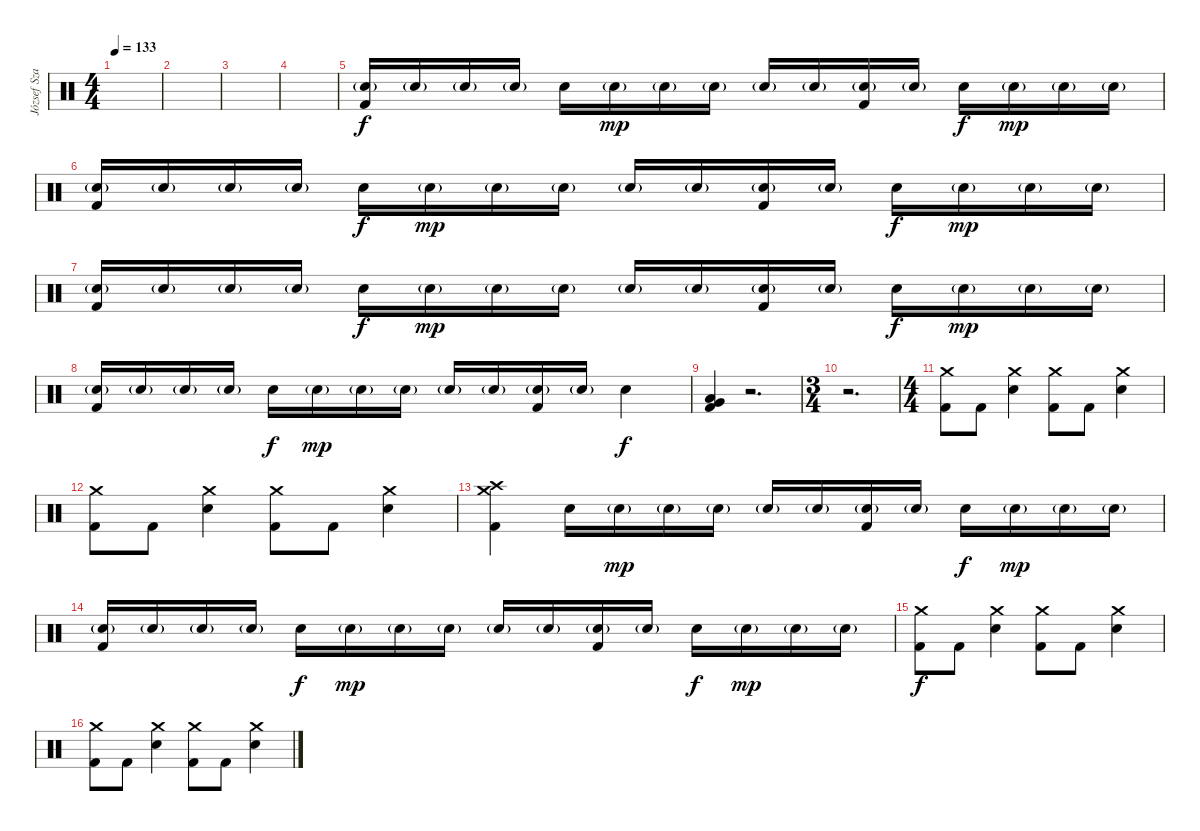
\track ("József Szakács (Drums)" "József Sza") {instrument percussion}
\staff {score}
\articulation defaults
\ts (4 4)
\tempo 133
\clef neutral
\ks c
|
|
|
|
("Snare (hit) 2"{g} "Kick (hit) 2").16 "Snare (hit) 2"{g}.16 "Snare (hit) 2"{g}.16 "Snare (hit) 2"{g}.16 "Snare (hit) 2".16{dy f} "Snare (hit) 2"{g}.16{dy mp} "Snare (hit) 2"{g}.16 "Snare (hit) 2"{g}.16 "Snare (hit) 2"{g}.16 "Snare (hit) 2"{g}.16 ("Snare (hit) 2"{g} "Kick (hit) 2").16 "Snare (hit) 2"{g}.16 "Snare (hit) 2".16{dy f} "Snare (hit) 2"{g}.16{dy mp} "Snare (hit) 2"{g}.16 "Snare (hit) 2"{g}.16 |
("Snare (hit) 2"{g} "Kick (hit) 2").16 "Snare (hit) 2"{g}.16 "Snare (hit) 2"{g}.16 "Snare (hit) 2"{g}.16 "Snare (hit) 2".16{dy f} "Snare (hit) 2"{g}.16{dy mp} "Snare (hit) 2"{g}.16 "Snare (hit) 2"{g}.16 "Snare (hit) 2"{g}.16 "Snare (hit) 2"{g}.16 ("Snare (hit) 2"{g} "Kick (hit) 2").16 "Snare (hit) 2"{g}.16 "Snare (hit) 2".16{dy f} "Snare (hit) 2"{g}.16{dy mp} "Snare (hit) 2"{g}.16 "Snare (hit) 2"{g}.16 |
("Snare (hit) 2"{g} "Kick (hit) 2").16 "Snare (hit) 2"{g}.16 "Snare (hit) 2"{g}.16 "Snare (hit) 2"{g}.16 "Snare (hit) 2".16{dy f} "Snare (hit) 2"{g}.16{dy mp} "Snare (hit) 2"{g}.16 "Snare (hit) 2"{g}.16 "Snare (hit) 2"{g}.16 "Snare (hit) 2"{g}.16 ("Snare (hit) 2"{g} "Kick (hit) 2").16 "Snare (hit) 2"{g}.16 "Snare (hit) 2".16{dy f} "Snare (hit) 2"{g}.16{dy mp} "Snare (hit) 2"{g}.16 "Snare (hit) 2"{g}.16 |
("Snare (hit) 2"{g} "Kick (hit) 2").16 "Snare (hit) 2"{g}.16 "Snare (hit) 2"{g}.16 "Snare (hit) 2"{g}.16 "Snare (hit) 2".16{dy f} "Snare (hit) 2"{g}.16{dy mp} "Snare (hit) 2"{g}.16 "Snare (hit) 2"{g}.16 "Snare (hit) 2"{g}.16 "Snare (hit) 2"{g}.16 ("Snare (hit) 2"{g} "Kick (hit) 2").16 "Snare (hit) 2"{g}.16 "Snare (hit) 2".4{dy f} |
("Low Floor Tom (hit)" "Very Low Tom (hit)" "Kick (hit) 2").4 r.2{d} |
\ts (3 4)
r.2{d} |
\ts (4 4)
("Crash medium (hit)" "Kick (hit) 2").8 "Kick (hit) 2".8 ("Crash medium (hit)" "Snare (hit) 2").4 ("Crash medium (hit)" "Kick (hit) 2").8 "Kick (hit) 2".8 ("Crash medium (hit)" "Snare (hit) 2").4 |
("Crash medium (hit)" "Kick (hit) 2").8 "Kick (hit) 2".8 ("Crash medium (hit)" "Snare (hit) 2").4 ("Crash medium (hit)" "Kick (hit) 2").8 "Kick (hit) 2".8 ("Crash medium (hit)" "Snare (hit) 2").4 |
("Crash medium (hit)" "Crash high (hit)" "Kick (hit) 2").4 "Snare (hit) 2".16 "Snare (hit) 2"{g}.16{dy mp} "Snare (hit) 2"{g}.16 "Snare (hit) 2"{g}.16 "Snare (hit) 2"{g}.16 "Snare (hit) 2"{g}.16 ("Snare (hit) 2"{g} "Kick (hit) 2").16 "Snare (hit) 2"{g}.16 "Snare (hit) 2".16{dy f} "Snare (hit) 2"{g}.16{dy mp} "Snare (hit) 2"{g}.16 "Snare (hit) 2"{g}.16 |
("Snare (hit) 2"{g} "Kick (hit) 2").16 "Snare (hit) 2"{g}.16 "Snare (hit) 2"{g}.16 "Snare (hit) 2"{g}.16 "Snare (hit) 2".16{dy f} "Snare (hit) 2"{g}.16{dy mp} "Snare (hit) 2"{g}.16 "Snare (hit) 2"{g}.16 "Snare (hit) 2"{g}.16 "Snare (hit) 2"{g}.16 ("Snare (hit) 2"{g} "Kick (hit) 2").16 "Snare (hit) 2"{g}.16 "Snare (hit) 2".16{dy f} "Snare (hit) 2"{g}.16{dy mp} "Snare (hit) 2"{g}.16 "Snare (hit) 2"{g}.16 |
("Crash medium (hit)" "Kick (hit) 2").8{dy f} "Kick (hit) 2".8 ("Crash medium (hit)" "Snare (hit) 2").4 ("Crash medium (hit)" "Kick (hit) 2").8 "Kick (hit) 2".8 ("Crash medium (hit)" "Snare (hit) 2").4 |
("Crash medium (hit)" "Kick (hit) 2").8 "Kick (hit) 2".8 ("Crash medium (hit)" "Snare (hit) 2").4 ("Crash medium (hit)" "Kick (hit) 2").8 "Kick (hit) 2".8 ("Crash medium (hit)" "Snare (hit) 2").4
